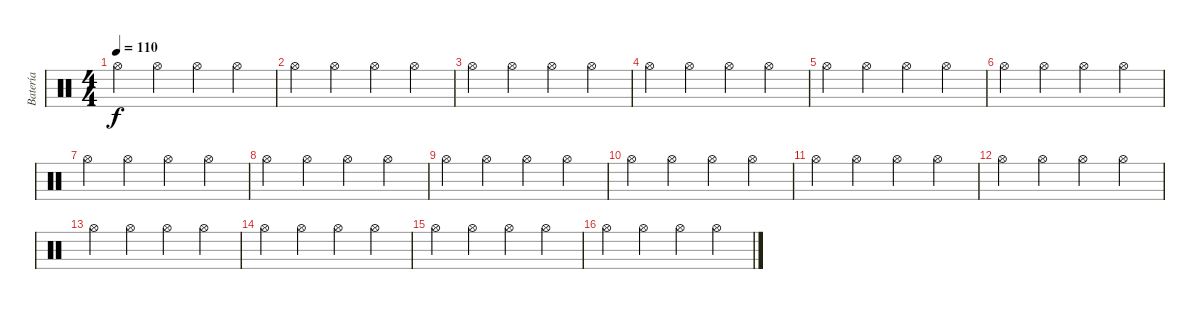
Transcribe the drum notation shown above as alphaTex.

\track ("Batería" "Batería") {instrument percussion}
\staff {score}
\articulation defaults
\ts (4 4)
\tempo 110
\clef neutral
\ks c "Hi-Hat (open)".4{dy f} "Hi-Hat (open)".4 "Hi-Hat (open)".4 "Hi-Hat (open)".4
|
"Hi-Hat (open)".4 "Hi-Hat (open)".4 "Hi-Hat (open)".4 "Hi-Hat (open)".4 |
"Hi-Hat (open)".4 "Hi-Hat (open)".4 "Hi-Hat (open)".4 "Hi-Hat (open)".4 |
"Hi-Hat (open)".4 "Hi-Hat (open)".4 "Hi-Hat (open)".4 "Hi-Hat (open)".4 |
"Hi-Hat (open)".4 "Hi-Hat (open)".4 "Hi-Hat (open)".4 "Hi-Hat (open)".4 |
"Hi-Hat (open)".4 "Hi-Hat (open)".4 "Hi-Hat (open)".4 "Hi-Hat (open)".4 |
"Hi-Hat (open)".4 "Hi-Hat (open)".4 "Hi-Hat (open)".4 "Hi-Hat (open)".4 |
"Hi-Hat (open)".4 "Hi-Hat (open)".4 "Hi-Hat (open)".4 "Hi-Hat (open)".4 |
"Hi-Hat (open)".4 "Hi-Hat (open)".4 "Hi-Hat (open)".4 "Hi-Hat (open)".4 |
"Hi-Hat (open)".4 "Hi-Hat (open)".4 "Hi-Hat (open)".4 "Hi-Hat (open)".4 |
"Hi-Hat (open)".4 "Hi-Hat (open)".4 "Hi-Hat (open)".4 "Hi-Hat (open)".4 |
"Hi-Hat (open)".4 "Hi-Hat (open)".4 "Hi-Hat (open)".4 "Hi-Hat (open)".4 |
"Hi-Hat (open)".4 "Hi-Hat (open)".4 "Hi-Hat (open)".4 "Hi-Hat (open)".4 |
"Hi-Hat (open)".4 "Hi-Hat (open)".4 "Hi-Hat (open)".4 "Hi-Hat (open)".4 |
"Hi-Hat (open)".4 "Hi-Hat (open)".4 "Hi-Hat (open)".4 "Hi-Hat (open)".4 |
"Hi-Hat (open)".4 "Hi-Hat (open)".4 "Hi-Hat (open)".4 "Hi-Hat (open)".4
